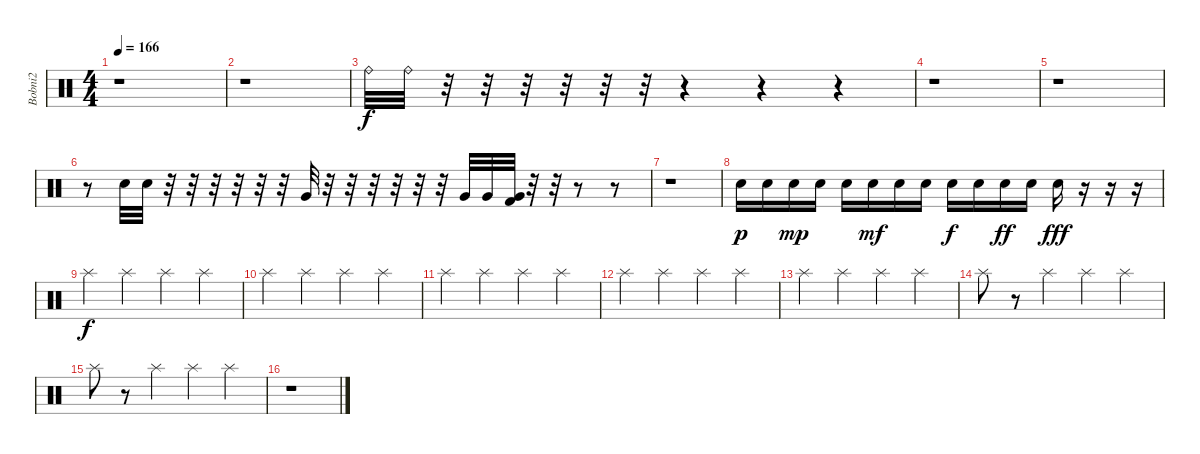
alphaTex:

\track ("Bobni2" "Bobni2") {instrument percussion}
\staff {score}
\articulation defaults
\ts (4 4)
\tempo 166
\clef neutral
\ks c
r.1{dy f} |
r.1 |
"Ride (bell)".32 "Ride (bell)".32 r.32 r.32 r.32 r.32 r.32 r.32 r.4 r.4 r.4 |
r.1 |
r.1 |
r.8 "Snare (hit) 2".32 "Snare (hit) 2".32 r.32 r.32 r.32 r.32 r.32 r.32 "Very Low Tom (hit)".32 r.32 r.32 r.32 r.32 r.32 r.32 "Very Low Tom (hit)".32 "Very Low Tom (hit)".32 ("Very Low Tom (hit)" "Kick (hit) 2").32 r.32 r.32 r.8 r.8 |
r.1 |
"Snare (hit) 2".16{dy p} "Snare (hit) 2".16 "Snare (hit) 2".16{dy mp} "Snare (hit) 2".16 "Snare (hit) 2".16 "Snare (hit) 2".16{dy mf} "Snare (hit) 2".16 "Snare (hit) 2".16 "Snare (hit) 2".16{dy f} "Snare (hit) 2".16 "Snare (hit) 2".16{dy ff} "Snare (hit) 2".16 "Snare (hit) 2".16{dy fff} r.16 r.16 r.16 |
"Splash (hit)".4{dy f} "Splash (hit)".4 "Splash (hit)".4 "Splash (hit)".4 |
"Splash (hit)".4 "Splash (hit)".4 "Splash (hit)".4 "Splash (hit)".4 |
"Splash (hit)".4 "Splash (hit)".4 "Splash (hit)".4 "Splash (hit)".4 |
"Splash (hit)".4 "Splash (hit)".4 "Splash (hit)".4 "Splash (hit)".4 |
"Splash (hit)".4 "Splash (hit)".4 "Splash (hit)".4 "Splash (hit)".4 |
"Splash (hit)".8 r.8 "Splash (hit)".4 "Splash (hit)".4 "Splash (hit)".4 |
"Splash (hit)".8 r.8 "Splash (hit)".4 "Splash (hit)".4 "Splash (hit)".4 |
r.1
